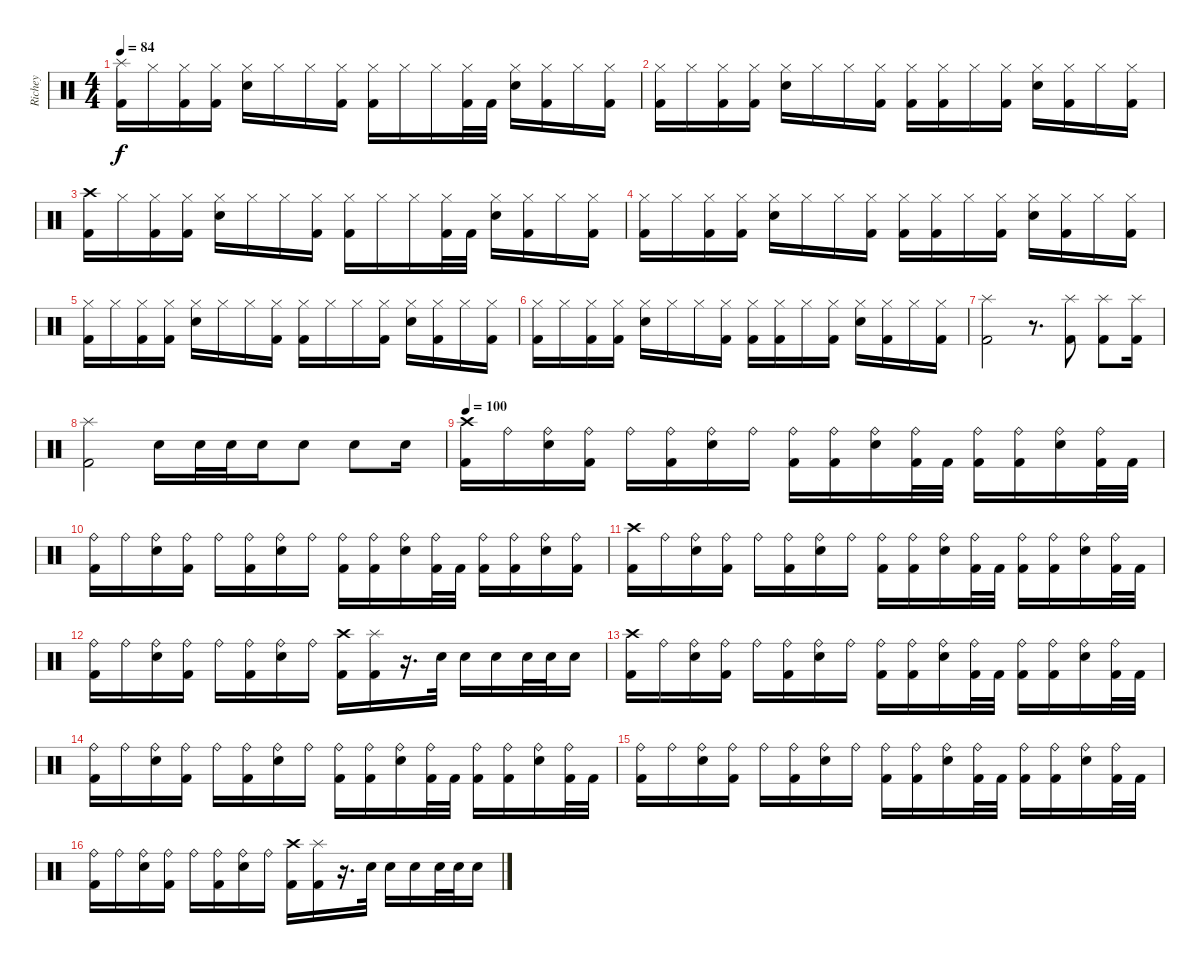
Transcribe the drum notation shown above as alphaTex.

\track ("Richey" "Richey") {instrument percussion}
\staff {score}
\articulation defaults
\ts (4 4)
\tempo 84
\clef neutral
\ks c
("Splash (hit)" "Kick (hit) 2").16{dy f} "Hi-Hat (closed)".16 ("Hi-Hat (closed)" "Kick (hit) 2").16 ("Hi-Hat (closed)" "Kick (hit) 2").16 ("Hi-Hat (closed)" "Snare (hit) 2").16 "Hi-Hat (closed)".16 "Hi-Hat (closed)".16 ("Hi-Hat (closed)" "Kick (hit) 2").16 ("Hi-Hat (closed)" "Kick (hit) 2").16 "Hi-Hat (closed)".16 "Hi-Hat (closed)".16 ("Hi-Hat (closed)" "Kick (hit) 2").32 "Kick (hit) 2".32 ("Hi-Hat (closed)" "Snare (hit) 2").16 ("Hi-Hat (closed)" "Kick (hit) 2").16 "Hi-Hat (closed)".16 ("Hi-Hat (closed)" "Kick (hit) 2").16 |
("Hi-Hat (closed)" "Kick (hit) 2").16 "Hi-Hat (closed)".16 ("Hi-Hat (closed)" "Kick (hit) 2").16 ("Hi-Hat (closed)" "Kick (hit) 2").16 ("Hi-Hat (closed)" "Snare (hit) 2").16 "Hi-Hat (closed)".16 "Hi-Hat (closed)".16 ("Hi-Hat (closed)" "Kick (hit) 2").16 ("Hi-Hat (closed)" "Kick (hit) 2").16 ("Hi-Hat (closed)" "Kick (hit) 2").16 "Hi-Hat (closed)".16 ("Hi-Hat (closed)" "Kick (hit) 2").16 ("Hi-Hat (closed)" "Snare (hit) 2").16 ("Hi-Hat (closed)" "Kick (hit) 2").16 "Hi-Hat (closed)".16 ("Hi-Hat (closed)" "Kick (hit) 2").16 |
("Crash high (hit)" "Kick (hit) 2").16 "Hi-Hat (closed)".16 ("Hi-Hat (closed)" "Kick (hit) 2").16 ("Hi-Hat (closed)" "Kick (hit) 2").16 ("Hi-Hat (closed)" "Snare (hit) 2").16 "Hi-Hat (closed)".16 "Hi-Hat (closed)".16 ("Hi-Hat (closed)" "Kick (hit) 2").16 ("Hi-Hat (closed)" "Kick (hit) 2").16 "Hi-Hat (closed)".16 "Hi-Hat (closed)".16 ("Hi-Hat (closed)" "Kick (hit) 2").32 "Kick (hit) 2".32 ("Hi-Hat (closed)" "Snare (hit) 2").16 ("Hi-Hat (closed)" "Kick (hit) 2").16 "Hi-Hat (closed)".16 ("Hi-Hat (closed)" "Kick (hit) 2").16 |
("Hi-Hat (closed)" "Kick (hit) 2").16 "Hi-Hat (closed)".16 ("Hi-Hat (closed)" "Kick (hit) 2").16 ("Hi-Hat (closed)" "Kick (hit) 2").16 ("Hi-Hat (closed)" "Snare (hit) 2").16 "Hi-Hat (closed)".16 "Hi-Hat (closed)".16 ("Hi-Hat (closed)" "Kick (hit) 2").16 ("Hi-Hat (closed)" "Kick (hit) 2").16 ("Hi-Hat (closed)" "Kick (hit) 2").16 "Hi-Hat (closed)".16 ("Hi-Hat (closed)" "Kick (hit) 2").16 ("Hi-Hat (closed)" "Snare (hit) 2").16 ("Hi-Hat (closed)" "Kick (hit) 2").16 "Hi-Hat (closed)".16 ("Hi-Hat (closed)" "Kick (hit) 2").16 |
("Hi-Hat (closed)" "Kick (hit) 2").16 "Hi-Hat (closed)".16 ("Hi-Hat (closed)" "Kick (hit) 2").16 ("Hi-Hat (closed)" "Kick (hit) 2").16 ("Hi-Hat (closed)" "Snare (hit) 2").16 "Hi-Hat (closed)".16 "Hi-Hat (closed)".16 ("Hi-Hat (closed)" "Kick (hit) 2").16 ("Hi-Hat (closed)" "Kick (hit) 2").16 "Hi-Hat (closed)".16 "Hi-Hat (closed)".16 ("Hi-Hat (closed)" "Kick (hit) 2").16 ("Hi-Hat (closed)" "Snare (hit) 2").16 ("Hi-Hat (closed)" "Kick (hit) 2").16 "Hi-Hat (closed)".16 ("Hi-Hat (closed)" "Kick (hit) 2").16 |
("Hi-Hat (closed)" "Kick (hit) 2").16 "Hi-Hat (closed)".16 ("Hi-Hat (closed)" "Kick (hit) 2").16 ("Hi-Hat (closed)" "Kick (hit) 2").16 ("Hi-Hat (closed)" "Snare (hit) 2").16 "Hi-Hat (closed)".16 "Hi-Hat (closed)".16 ("Hi-Hat (closed)" "Kick (hit) 2").16 ("Hi-Hat (closed)" "Kick (hit) 2").16 ("Hi-Hat (closed)" "Kick (hit) 2").16 "Hi-Hat (closed)".16 ("Hi-Hat (closed)" "Kick (hit) 2").16 ("Hi-Hat (closed)" "Snare (hit) 2").16 ("Hi-Hat (closed)" "Kick (hit) 2").16 "Hi-Hat (closed)".16 ("Hi-Hat (closed)" "Kick (hit) 2").16 |
("Splash (hit)" "Kick (hit) 2").2 r.8{d} ("Splash (hit)" "Kick (hit) 2").8 ("Splash (hit)" "Kick (hit) 2").8 ("Splash (hit)" "Kick (hit) 2").16 |
("Splash (hit)" "Kick (hit) 2").2 "Snare (hit) 2".16 "Snare (hit) 2".32 "Snare (hit) 2".32 "Snare (hit) 2".16 "Snare (hit) 2".8 "Snare (hit) 2".8 "Snare (hit) 2".16 |
\tempo 100
("Crash high (hit)" "Kick (hit) 2").16 "Ride (bell)".16 ("Ride (bell)" "Snare (hit) 2").16 ("Ride (bell)" "Kick (hit) 2").16 "Ride (bell)".16 ("Ride (bell)" "Kick (hit) 2").16 ("Ride (bell)" "Snare (hit) 2").16 "Ride (bell)".16 ("Ride (bell)" "Kick (hit) 2").16 ("Ride (bell)" "Kick (hit) 2").16 ("Ride (bell)" "Snare (hit) 2").16 ("Ride (bell)" "Kick (hit) 2").32 "Kick (hit) 2".32 ("Ride (bell)" "Kick (hit) 2").16 ("Ride (bell)" "Kick (hit) 2").16 ("Ride (bell)" "Snare (hit) 2").16 ("Ride (bell)" "Kick (hit) 2").32 "Kick (hit) 2".32 |
("Ride (bell)" "Kick (hit) 2").16 "Ride (bell)".16 ("Ride (bell)" "Snare (hit) 2").16 ("Ride (bell)" "Kick (hit) 2").16 "Ride (bell)".16 ("Ride (bell)" "Kick (hit) 2").16 ("Ride (bell)" "Snare (hit) 2").16 "Ride (bell)".16 ("Ride (bell)" "Kick (hit) 2").16 ("Ride (bell)" "Kick (hit) 2").16 ("Ride (bell)" "Snare (hit) 2").16 ("Ride (bell)" "Kick (hit) 2").32 "Kick (hit) 2".32 ("Ride (bell)" "Kick (hit) 2").16 ("Ride (bell)" "Kick (hit) 2").16 ("Ride (bell)" "Snare (hit) 2").16 ("Ride (bell)" "Kick (hit) 2").16 |
("Crash high (hit)" "Kick (hit) 2").16 "Ride (bell)".16 ("Ride (bell)" "Snare (hit) 2").16 ("Ride (bell)" "Kick (hit) 2").16 "Ride (bell)".16 ("Ride (bell)" "Kick (hit) 2").16 ("Ride (bell)" "Snare (hit) 2").16 "Ride (bell)".16 ("Ride (bell)" "Kick (hit) 2").16 ("Ride (bell)" "Kick (hit) 2").16 ("Ride (bell)" "Snare (hit) 2").16 ("Ride (bell)" "Kick (hit) 2").32 "Kick (hit) 2".32 ("Ride (bell)" "Kick (hit) 2").16 ("Ride (bell)" "Kick (hit) 2").16 ("Ride (bell)" "Snare (hit) 2").16 ("Ride (bell)" "Kick (hit) 2").32 "Kick (hit) 2".32 |
("Ride (bell)" "Kick (hit) 2").16 "Ride (bell)".16 ("Ride (bell)" "Snare (hit) 2").16 ("Ride (bell)" "Kick (hit) 2").16 "Ride (bell)".16 ("Ride (bell)" "Kick (hit) 2").16 ("Ride (bell)" "Snare (hit) 2").16 "Ride (bell)".16 ("Crash high (hit)" "Kick (hit) 2").16 ("Splash (hit)" "Kick (hit) 2").16 r.16{d} "Snare (hit) 2".32 "Snare (hit) 2".16 "Snare (hit) 2".16 "Snare (hit) 2".32 "Snare (hit) 2".32 "Snare (hit) 2".16 |
("Crash high (hit)" "Kick (hit) 2").16 "Ride (bell)".16 ("Ride (bell)" "Snare (hit) 2").16 ("Ride (bell)" "Kick (hit) 2").16 "Ride (bell)".16 ("Ride (bell)" "Kick (hit) 2").16 ("Ride (bell)" "Snare (hit) 2").16 "Ride (bell)".16 ("Ride (bell)" "Kick (hit) 2").16 ("Ride (bell)" "Kick (hit) 2").16 ("Ride (bell)" "Snare (hit) 2").16 ("Ride (bell)" "Kick (hit) 2").32 "Kick (hit) 2".32 ("Ride (bell)" "Kick (hit) 2").16 ("Ride (bell)" "Kick (hit) 2").16 ("Ride (bell)" "Snare (hit) 2").16 ("Ride (bell)" "Kick (hit) 2").32 "Kick (hit) 2".32 |
("Ride (bell)" "Kick (hit) 2").16 "Ride (bell)".16 ("Ride (bell)" "Snare (hit) 2").16 ("Ride (bell)" "Kick (hit) 2").16 "Ride (bell)".16 ("Ride (bell)" "Kick (hit) 2").16 ("Ride (bell)" "Snare (hit) 2").16 "Ride (bell)".16 ("Ride (bell)" "Kick (hit) 2").16 ("Ride (bell)" "Kick (hit) 2").16 ("Ride (bell)" "Snare (hit) 2").16 ("Ride (bell)" "Kick (hit) 2").32 "Kick (hit) 2".32 ("Ride (bell)" "Kick (hit) 2").16 ("Ride (bell)" "Kick (hit) 2").16 ("Ride (bell)" "Snare (hit) 2").16 ("Ride (bell)" "Kick (hit) 2").32 "Kick (hit) 2".32 |
("Ride (bell)" "Kick (hit) 2").16 "Ride (bell)".16 ("Ride (bell)" "Snare (hit) 2").16 ("Ride (bell)" "Kick (hit) 2").16 "Ride (bell)".16 ("Ride (bell)" "Kick (hit) 2").16 ("Ride (bell)" "Snare (hit) 2").16 "Ride (bell)".16 ("Ride (bell)" "Kick (hit) 2").16 ("Ride (bell)" "Kick (hit) 2").16 ("Ride (bell)" "Snare (hit) 2").16 ("Ride (bell)" "Kick (hit) 2").32 "Kick (hit) 2".32 ("Ride (bell)" "Kick (hit) 2").16 ("Ride (bell)" "Kick (hit) 2").16 ("Ride (bell)" "Snare (hit) 2").16 ("Ride (bell)" "Kick (hit) 2").32 "Kick (hit) 2".32 |
("Ride (bell)" "Kick (hit) 2").16 "Ride (bell)".16 ("Ride (bell)" "Snare (hit) 2").16 ("Ride (bell)" "Kick (hit) 2").16 "Ride (bell)".16 ("Ride (bell)" "Kick (hit) 2").16 ("Ride (bell)" "Snare (hit) 2").16 "Ride (bell)".16 ("Crash high (hit)" "Kick (hit) 2").16 ("Splash (hit)" "Kick (hit) 2").16 r.16{d} "Snare (hit) 2".32 "Snare (hit) 2".16 "Snare (hit) 2".16 "Snare (hit) 2".32 "Snare (hit) 2".32 "Snare (hit) 2".16
